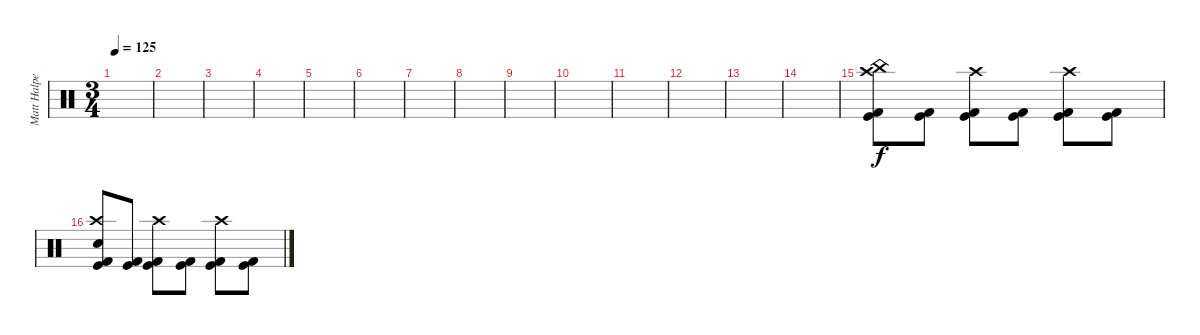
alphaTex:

\track ("Matt Halpern" "Matt Halpe") {instrument percussion}
\staff {score}
\articulation defaults
\ts (3 4)
\tempo 125
\clef neutral
\ks c
|
|
|
|
|
|
|
|
|
|
|
|
|
|
("Kick (hit) 2" "Kick (hit)" "China (hit)" "Crash high (hit)").8 ("Kick (hit) 2" "Kick (hit)").8 ("Kick (hit) 2" "Kick (hit)" "Crash high (hit)").8 ("Kick (hit) 2" "Kick (hit)").8 ("Kick (hit) 2" "Kick (hit)" "Crash high (hit)").8 ("Kick (hit) 2" "Kick (hit)").8 |
("Kick (hit) 2" "Kick (hit)" "Electric Snare (hit)" "Crash high (hit)").8 ("Kick (hit) 2" "Kick (hit)").8 ("Kick (hit) 2" "Kick (hit)" "Crash high (hit)").8 ("Kick (hit) 2" "Kick (hit)").8 ("Kick (hit) 2" "Kick (hit)" "Crash high (hit)").8 ("Kick (hit) 2" "Kick (hit)").8
